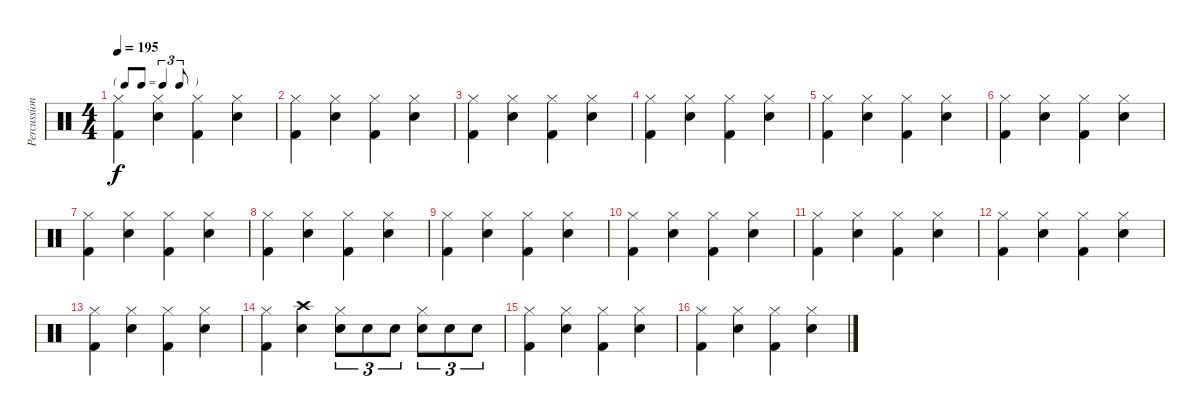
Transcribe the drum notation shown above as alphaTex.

\track ("Percussions" "Percussion") {instrument percussion}
\staff {score}
\articulation defaults
\ts (4 4)
\tf triplet8th
\tempo 195
\clef neutral
\ks c
("Hi-Hat (closed)" "Kick (hit) 2").4{dy f} ("Snare (hit) 2" "Hi-Hat (closed)").4 ("Hi-Hat (closed)" "Kick (hit) 2").4 ("Snare (hit) 2" "Hi-Hat (closed)").4 |
("Hi-Hat (closed)" "Kick (hit) 2").4 ("Snare (hit) 2" "Hi-Hat (closed)").4 ("Hi-Hat (closed)" "Kick (hit) 2").4 ("Snare (hit) 2" "Hi-Hat (closed)").4 |
("Hi-Hat (closed)" "Kick (hit) 2").4 ("Snare (hit) 2" "Hi-Hat (closed)").4 ("Hi-Hat (closed)" "Kick (hit) 2").4 ("Snare (hit) 2" "Hi-Hat (closed)").4 |
("Hi-Hat (closed)" "Kick (hit) 2").4 ("Snare (hit) 2" "Hi-Hat (closed)").4 ("Hi-Hat (closed)" "Kick (hit) 2").4 ("Snare (hit) 2" "Hi-Hat (closed)").4 |
("Hi-Hat (closed)" "Kick (hit) 2").4 ("Snare (hit) 2" "Hi-Hat (closed)").4 ("Hi-Hat (closed)" "Kick (hit) 2").4 ("Snare (hit) 2" "Hi-Hat (closed)").4 |
("Hi-Hat (closed)" "Kick (hit) 2").4 ("Snare (hit) 2" "Hi-Hat (closed)").4 ("Hi-Hat (closed)" "Kick (hit) 2").4 ("Snare (hit) 2" "Hi-Hat (closed)").4 |
("Hi-Hat (closed)" "Kick (hit) 2").4 ("Snare (hit) 2" "Hi-Hat (closed)").4 ("Hi-Hat (closed)" "Kick (hit) 2").4 ("Snare (hit) 2" "Hi-Hat (closed)").4 |
("Hi-Hat (closed)" "Kick (hit) 2").4 ("Snare (hit) 2" "Hi-Hat (closed)").4 ("Hi-Hat (closed)" "Kick (hit) 2").4 ("Snare (hit) 2" "Hi-Hat (closed)").4 |
("Hi-Hat (closed)" "Kick (hit) 2").4 ("Snare (hit) 2" "Hi-Hat (closed)").4 ("Hi-Hat (closed)" "Kick (hit) 2").4 ("Snare (hit) 2" "Hi-Hat (closed)").4 |
("Hi-Hat (closed)" "Kick (hit) 2").4 ("Snare (hit) 2" "Hi-Hat (closed)").4 ("Hi-Hat (closed)" "Kick (hit) 2").4 ("Snare (hit) 2" "Hi-Hat (closed)").4 |
("Hi-Hat (closed)" "Kick (hit) 2").4 ("Snare (hit) 2" "Hi-Hat (closed)").4 ("Hi-Hat (closed)" "Kick (hit) 2").4 ("Snare (hit) 2" "Hi-Hat (closed)").4 |
("Hi-Hat (closed)" "Kick (hit) 2").4 ("Snare (hit) 2" "Hi-Hat (closed)").4 ("Hi-Hat (closed)" "Kick (hit) 2").4 ("Snare (hit) 2" "Hi-Hat (closed)").4 |
("Hi-Hat (closed)" "Kick (hit) 2").4 ("Snare (hit) 2" "Hi-Hat (closed)").4 ("Hi-Hat (closed)" "Kick (hit) 2").4 ("Snare (hit) 2" "Hi-Hat (closed)").4 |
("Hi-Hat (closed)" "Kick (hit) 2").4 ("Snare (hit) 2" "Crash high (hit)").4 ("Snare (hit) 2" "Hi-Hat (closed)").8{tu (3 2)} "Snare (hit) 2".8{tu (3 2)} "Snare (hit) 2".8{tu (3 2)} ("Snare (hit) 2" "Hi-Hat (closed)").8{tu (3 2)} "Snare (hit) 2".8{tu (3 2)} "Snare (hit) 2".8{tu (3 2)} |
("Hi-Hat (closed)" "Kick (hit) 2").4 ("Snare (hit) 2" "Hi-Hat (closed)").4 ("Hi-Hat (closed)" "Kick (hit) 2").4 ("Snare (hit) 2" "Hi-Hat (closed)").4 |
("Hi-Hat (closed)" "Kick (hit) 2").4 ("Snare (hit) 2" "Hi-Hat (closed)").4 ("Hi-Hat (closed)" "Kick (hit) 2").4 ("Snare (hit) 2" "Hi-Hat (closed)").4
